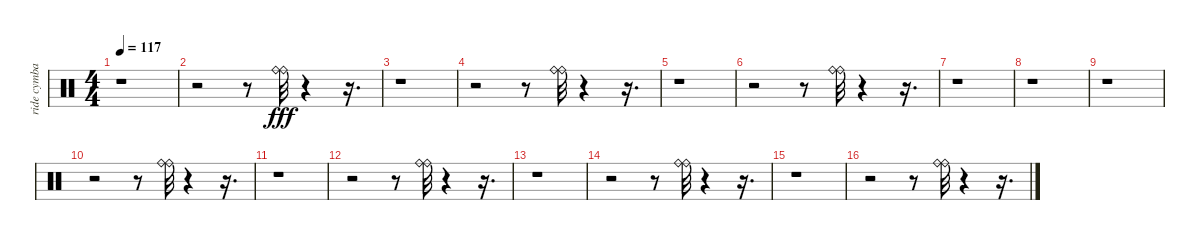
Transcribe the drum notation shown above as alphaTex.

\track ("ride cymbal" "ride cymba") {instrument percussion}
\staff {score}
\articulation defaults
\ts (4 4)
\tempo 117
\clef neutral
\ks c
r.1{dy fff} |
r.2 r.8 ("Ride (bell)" "Ride (bell)").32 r.4 r.16{d} |
r.1 |
r.2 r.8 ("Ride (bell)" "Ride (bell)").32 r.4 r.16{d} |
r.1 |
r.2 r.8 ("Ride (bell)" "Ride (bell)").32 r.4 r.16{d} |
r.1 |
r.1 |
r.1 |
r.2 r.8 ("Ride (bell)" "Ride (bell)").32 r.4 r.16{d} |
r.1 |
r.2 r.8 ("Ride (bell)" "Ride (bell)").32 r.4 r.16{d} |
r.1 |
r.2 r.8 ("Ride (bell)" "Ride (bell)").32 r.4 r.16{d} |
r.1 |
r.2 r.8 ("Ride (bell)" "Ride (bell)").32 r.4 r.16{d}
